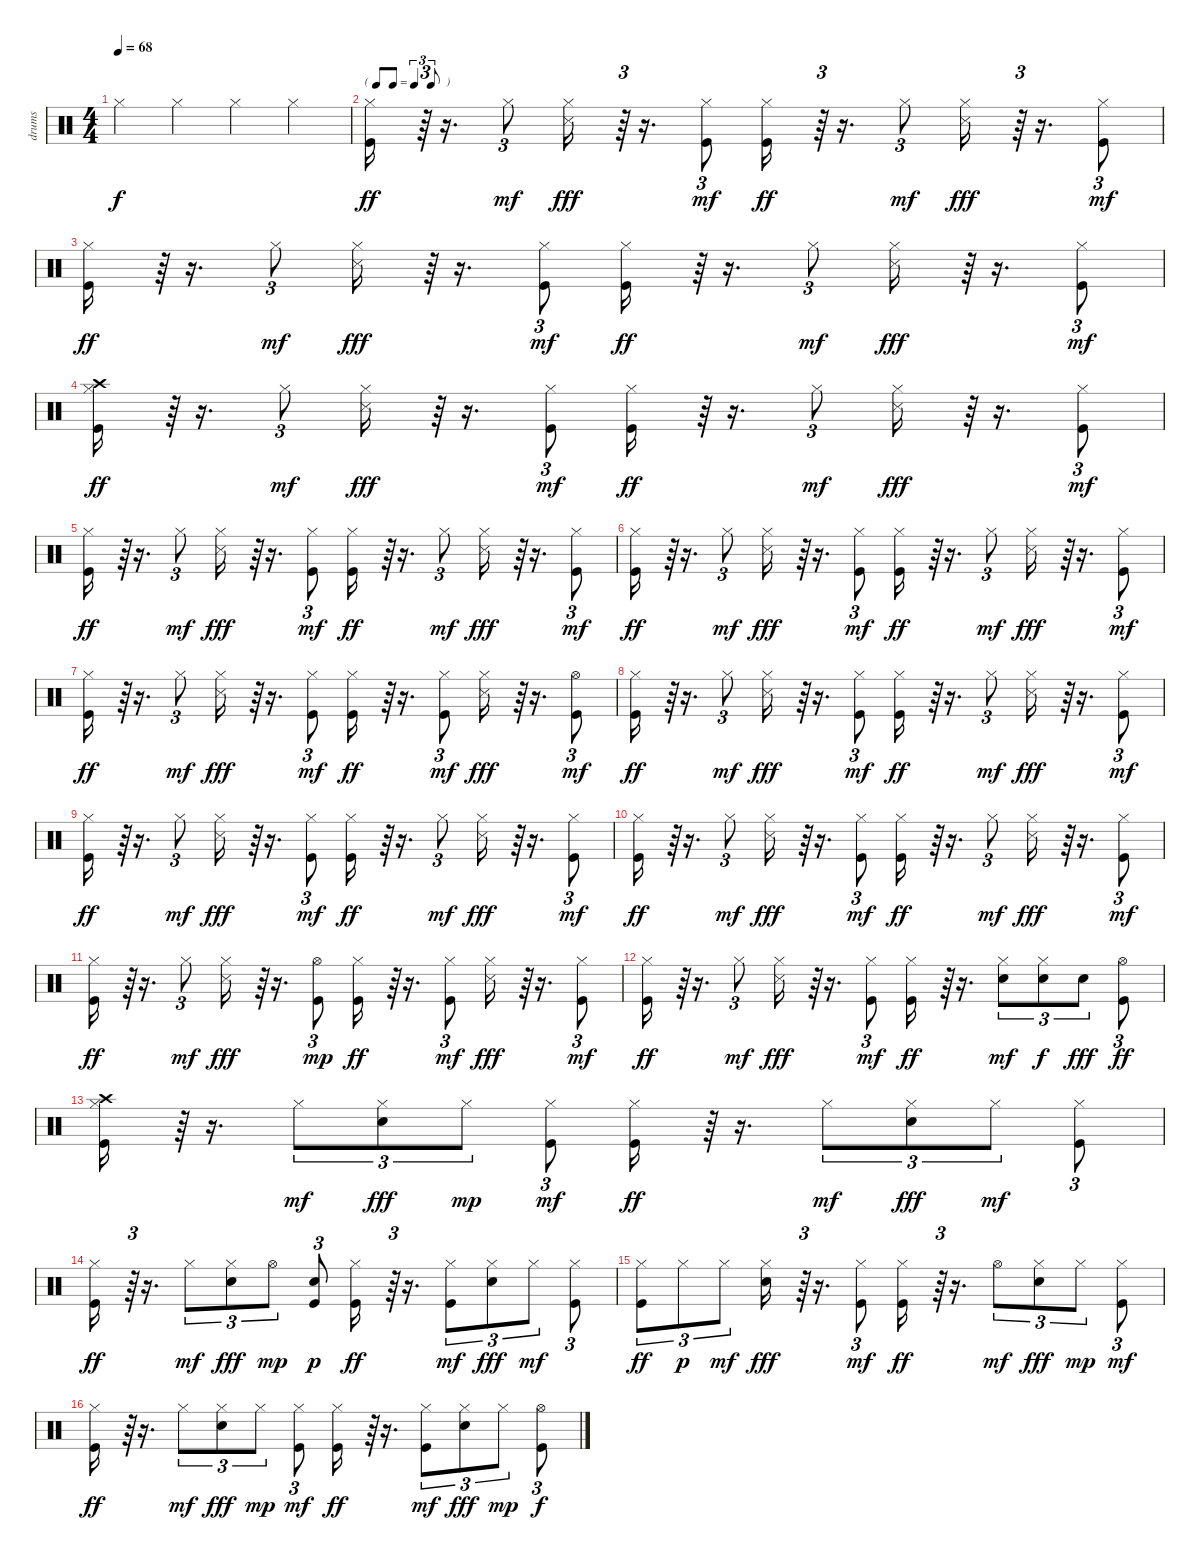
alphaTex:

\track ("drums" "drums") {instrument percussion}
\staff {score}
\articulation defaults
\ts (4 4)
\tempo 68
\clef neutral
\ks c "Hi-Hat (closed)".4{dy f} "Hi-Hat (closed)".4 "Hi-Hat (closed)".4 "Hi-Hat (closed)".4
|
\tf triplet8th
("Kick (hit)" "Hi-Hat (closed)").16{dy ff} r.64{tu (3 2)} r.16{d} "Hi-Hat (closed)".8{tu (3 2) dy mf} ("Hi-Hat (closed)" "Snare (side stick) 3").16{dy fff} r.64{tu (3 2)} r.16{d} ("Kick (hit)" "Hi-Hat (closed)").8{tu (3 2) dy mf} ("Kick (hit)" "Hi-Hat (closed)").16{dy ff} r.64{tu (3 2)} r.16{d} "Hi-Hat (closed)".8{tu (3 2) dy mf} ("Hi-Hat (closed)" "Snare (side stick) 3").16{dy fff} r.64{tu (3 2)} r.16{d} ("Kick (hit)" "Hi-Hat (closed)").8{tu (3 2) dy mf} |
("Kick (hit)" "Hi-Hat (closed)").16{dy ff} r.64{tu (3 2)} r.16{d} "Hi-Hat (closed)".8{tu (3 2) dy mf} ("Hi-Hat (closed)" "Snare (side stick) 3").16{dy fff} r.64{tu (3 2)} r.16{d} ("Kick (hit)" "Hi-Hat (closed)").8{tu (3 2) dy mf} ("Kick (hit)" "Hi-Hat (closed)").16{dy ff} r.64{tu (3 2)} r.16{d} "Hi-Hat (closed)".8{tu (3 2) dy mf} ("Hi-Hat (closed)" "Snare (side stick) 3").16{dy fff} r.64{tu (3 2)} r.16{d} ("Kick (hit)" "Hi-Hat (closed)").8{tu (3 2) dy mf} |
("Kick (hit)" "Hi-Hat (closed)" "Crash high (hit)").16{dy ff} r.64{tu (3 2)} r.16{d} "Hi-Hat (closed)".8{tu (3 2) dy mf} ("Hi-Hat (closed)" "Snare (side stick) 3").16{dy fff} r.64{tu (3 2)} r.16{d} ("Kick (hit)" "Hi-Hat (closed)").8{tu (3 2) dy mf} ("Kick (hit)" "Hi-Hat (closed)").16{dy ff} r.64{tu (3 2)} r.16{d} "Hi-Hat (closed)".8{tu (3 2) dy mf} ("Hi-Hat (closed)" "Snare (side stick) 3").16{dy fff} r.64{tu (3 2)} r.16{d} ("Kick (hit)" "Hi-Hat (closed)").8{tu (3 2) dy mf} |
("Kick (hit)" "Hi-Hat (closed)").16{dy ff} r.64{tu (3 2)} r.16{d} "Hi-Hat (closed)".8{tu (3 2) dy mf} ("Hi-Hat (closed)" "Snare (side stick) 3").16{dy fff} r.64{tu (3 2)} r.16{d} ("Kick (hit)" "Hi-Hat (closed)").8{tu (3 2) dy mf} ("Kick (hit)" "Hi-Hat (closed)").16{dy ff} r.64{tu (3 2)} r.16{d} "Hi-Hat (closed)".8{tu (3 2) dy mf} ("Hi-Hat (closed)" "Snare (side stick) 3").16{dy fff} r.64{tu (3 2)} r.16{d} ("Kick (hit)" "Hi-Hat (closed)").8{tu (3 2) dy mf} |
("Kick (hit)" "Hi-Hat (closed)").16{dy ff} r.64{tu (3 2)} r.16{d} "Hi-Hat (closed)".8{tu (3 2) dy mf} ("Hi-Hat (closed)" "Snare (side stick) 3").16{dy fff} r.64{tu (3 2)} r.16{d} ("Kick (hit)" "Hi-Hat (closed)").8{tu (3 2) dy mf} ("Kick (hit)" "Hi-Hat (closed)").16{dy ff} r.64{tu (3 2)} r.16{d} "Hi-Hat (closed)".8{tu (3 2) dy mf} ("Hi-Hat (closed)" "Snare (side stick) 3").16{dy fff} r.64{tu (3 2)} r.16{d} ("Kick (hit)" "Hi-Hat (closed)").8{tu (3 2) dy mf} |
("Kick (hit)" "Hi-Hat (closed)").16{dy ff} r.64{tu (3 2)} r.16{d} "Hi-Hat (closed)".8{tu (3 2) dy mf} ("Hi-Hat (closed)" "Snare (side stick) 3").16{dy fff} r.64{tu (3 2)} r.16{d} ("Kick (hit)" "Hi-Hat (closed)").8{tu (3 2) dy mf} ("Kick (hit)" "Hi-Hat (closed)").16{dy ff} r.64{tu (3 2)} r.16{d} ("Kick (hit)" "Hi-Hat (closed)").8{tu (3 2) dy mf} ("Hi-Hat (closed)" "Snare (side stick) 3").16{dy fff} r.64{tu (3 2)} r.16{d} ("Kick (hit)" "Hi-Hat (open)").8{tu (3 2) dy mf} |
("Kick (hit)" "Hi-Hat (closed)").16{dy ff} r.64{tu (3 2)} r.16{d} "Hi-Hat (closed)".8{tu (3 2) dy mf} ("Hi-Hat (closed)" "Snare (side stick) 3").16{dy fff} r.64{tu (3 2)} r.16{d} ("Kick (hit)" "Hi-Hat (closed)").8{tu (3 2) dy mf} ("Kick (hit)" "Hi-Hat (closed)").16{dy ff} r.64{tu (3 2)} r.16{d} "Hi-Hat (closed)".8{tu (3 2) dy mf} ("Hi-Hat (closed)" "Snare (side stick) 3").16{dy fff} r.64{tu (3 2)} r.16{d} ("Kick (hit)" "Hi-Hat (closed)").8{tu (3 2) dy mf} |
("Kick (hit)" "Hi-Hat (closed)").16{dy ff} r.64{tu (3 2)} r.16{d} "Hi-Hat (closed)".8{tu (3 2) dy mf} ("Hi-Hat (closed)" "Snare (side stick) 3").16{dy fff} r.64{tu (3 2)} r.16{d} ("Kick (hit)" "Hi-Hat (closed)").8{tu (3 2) dy mf} ("Kick (hit)" "Hi-Hat (closed)").16{dy ff} r.64{tu (3 2)} r.16{d} "Hi-Hat (closed)".8{tu (3 2) dy mf} ("Hi-Hat (closed)" "Snare (side stick) 3").16{dy fff} r.64{tu (3 2)} r.16{d} ("Kick (hit)" "Hi-Hat (closed)").8{tu (3 2) dy mf} |
("Kick (hit)" "Hi-Hat (closed)").16{dy ff} r.64{tu (3 2)} r.16{d} "Hi-Hat (closed)".8{tu (3 2) dy mf} ("Hi-Hat (closed)" "Snare (side stick) 3").16{dy fff} r.64{tu (3 2)} r.16{d} ("Kick (hit)" "Hi-Hat (closed)").8{tu (3 2) dy mf} ("Kick (hit)" "Hi-Hat (closed)").16{dy ff} r.64{tu (3 2)} r.16{d} "Hi-Hat (closed)".8{tu (3 2) dy mf} ("Hi-Hat (closed)" "Snare (side stick) 3").16{dy fff} r.64{tu (3 2)} r.16{d} ("Kick (hit)" "Hi-Hat (closed)").8{tu (3 2) dy mf} |
("Kick (hit)" "Hi-Hat (closed)").16{dy ff} r.64{tu (3 2)} r.16{d} "Hi-Hat (closed)".8{tu (3 2) dy mf} ("Hi-Hat (closed)" "Snare (side stick) 3").16{dy fff} r.64{tu (3 2)} r.16{d} ("Kick (hit)" "Hi-Hat (open)").8{tu (3 2) dy mp} ("Kick (hit)" "Hi-Hat (closed)").16{dy ff} r.64{tu (3 2)} r.16{d} ("Kick (hit)" "Hi-Hat (closed)").8{tu (3 2) dy mf} ("Hi-Hat (closed)" "Snare (side stick) 3").16{dy fff} r.64{tu (3 2)} r.16{d} ("Kick (hit)" "Hi-Hat (closed)").8{tu (3 2) dy mf} |
("Kick (hit)" "Hi-Hat (closed)").16{dy ff} r.64{tu (3 2)} r.16{d} "Hi-Hat (closed)".8{tu (3 2) dy mf} ("Hi-Hat (closed)" "Snare (side stick) 3").16{dy fff} r.64{tu (3 2)} r.16{d} ("Kick (hit)" "Hi-Hat (closed)").8{tu (3 2) dy mf} ("Kick (hit)" "Hi-Hat (closed)").16{dy ff} r.64{tu (3 2)} r.16{d} ("Snare (hit) 2" "Hi-Hat (closed)").8{tu (3 2) dy mf} ("Snare (hit) 2" "Hi-Hat (closed)").8{tu (3 2) dy f} "Snare (hit) 2".8{tu (3 2) dy fff} ("Kick (hit)" "Hi-Hat (open)").8{tu (3 2) dy ff} |
("Kick (hit)" "Hi-Hat (closed)" "Crash high (hit)").16 r.64{tu (3 2)} r.16{d} "Hi-Hat (closed)".8{tu (3 2) dy mf} ("Snare (hit) 2" "Hi-Hat (closed)").8{tu (3 2) dy fff} "Hi-Hat (closed)".8{tu (3 2) dy mp} ("Kick (hit)" "Hi-Hat (closed)").8{tu (3 2) dy mf} ("Kick (hit)" "Hi-Hat (closed)").16{dy ff} r.64{tu (3 2)} r.16{d} "Hi-Hat (closed)".8{tu (3 2) dy mf} ("Snare (hit) 2" "Hi-Hat (closed)").8{tu (3 2) dy fff} "Hi-Hat (closed)".8{tu (3 2) dy mf} ("Kick (hit)" "Hi-Hat (closed)").8{tu (3 2)} |
("Kick (hit)" "Hi-Hat (closed)").16{dy ff} r.64{tu (3 2)} r.16{d} "Hi-Hat (closed)".8{tu (3 2) dy mf} ("Snare (hit) 2" "Hi-Hat (closed)").8{tu (3 2) dy fff} "Hi-Hat (open)".8{tu (3 2) dy mp} ("Kick (hit)" "Snare (hit) 2").8{tu (3 2) dy p} ("Kick (hit)" "Hi-Hat (closed)").16{dy ff} r.64{tu (3 2)} r.16{d} ("Kick (hit)" "Hi-Hat (closed)").8{tu (3 2) dy mf} ("Snare (hit) 2" "Hi-Hat (closed)").8{tu (3 2) dy fff} "Hi-Hat (closed)".8{tu (3 2) dy mf} ("Kick (hit)" "Hi-Hat (closed)").8{tu (3 2)} |
("Kick (hit)" "Hi-Hat (closed)").8{tu (3 2) dy ff} "Hi-Hat (closed)".8{tu (3 2) dy p} "Hi-Hat (closed)".8{tu (3 2) dy mf} ("Snare (hit) 2" "Hi-Hat (closed)").16{dy fff} r.64{tu (3 2)} r.16{d} ("Kick (hit)" "Hi-Hat (closed)").8{tu (3 2) dy mf} ("Kick (hit)" "Hi-Hat (closed)").16{dy ff} r.64{tu (3 2)} r.16{d} "Hi-Hat (open)".8{tu (3 2) dy mf} ("Snare (hit) 2" "Hi-Hat (closed)").8{tu (3 2) dy fff} "Hi-Hat (closed)".8{tu (3 2) dy mp} ("Kick (hit)" "Hi-Hat (closed)").8{tu (3 2) dy mf} |
("Kick (hit)" "Hi-Hat (closed)").16{dy ff} r.64{tu (3 2)} r.16{d} "Hi-Hat (closed)".8{tu (3 2) dy mf} ("Snare (hit) 2" "Hi-Hat (closed)").8{tu (3 2) dy fff} "Hi-Hat (closed)".8{tu (3 2) dy mp} ("Kick (hit)" "Hi-Hat (closed)").8{tu (3 2) dy mf} ("Kick (hit)" "Hi-Hat (closed)").16{dy ff} r.64{tu (3 2)} r.16{d} ("Kick (hit)" "Hi-Hat (closed)").8{tu (3 2) dy mf} ("Snare (hit) 2" "Hi-Hat (closed)").8{tu (3 2) dy fff} "Hi-Hat (closed)".8{tu (3 2) dy mp} ("Kick (hit)" "Hi-Hat (open)").8{tu (3 2) dy f}
